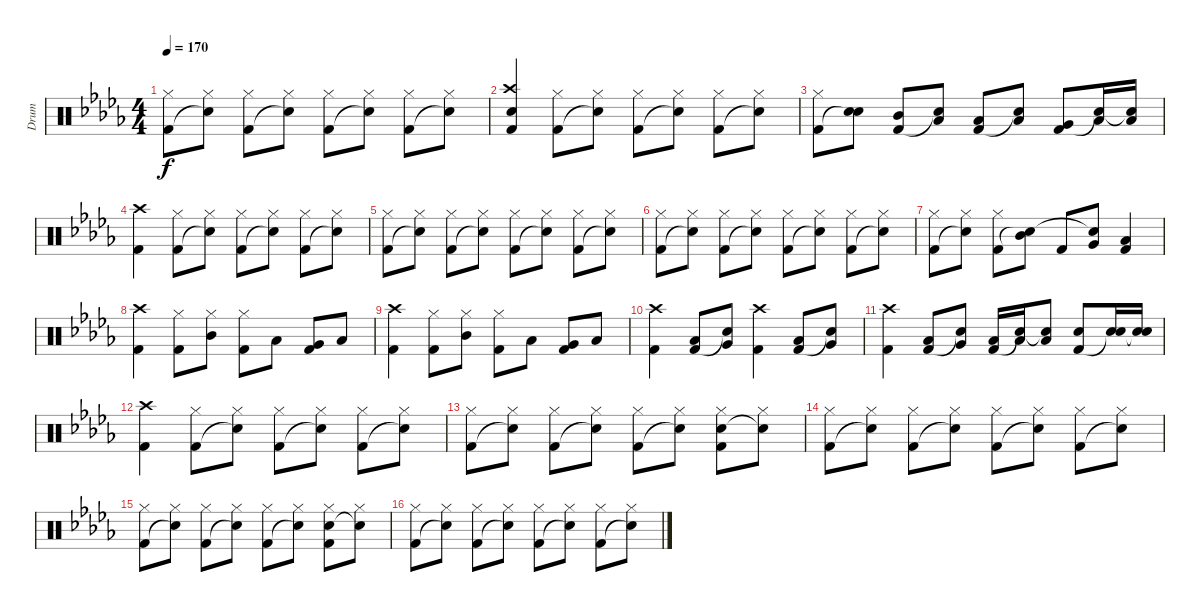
\track ("Drum" "Drum") {instrument percussion}
\staff {score}
\articulation defaults
\ts (4 4)
\tempo 170
\clef neutral
\ks db
("Hi-Hat (closed)" "Kick (hit) 2").8{dy f} ("Hi-Hat (closed)" "Snare (hit)"{t}).8 ("Hi-Hat (closed)" "Kick (hit) 2").8 ("Hi-Hat (closed)" "Snare (hit)"{t}).8 ("Hi-Hat (closed)" "Kick (hit) 2").8 ("Hi-Hat (closed)" "Snare (hit)"{t}).8 ("Hi-Hat (closed)" "Kick (hit) 2").8 ("Hi-Hat (closed)" "Snare (hit)"{t}).8 |
("Crash high (hit)" "Electric Snare (hit)" "Kick (hit) 2").4 ("Hi-Hat (closed)" "Kick (hit) 2").8 ("Hi-Hat (closed)" "Snare (hit)"{t}).8 ("Hi-Hat (closed)" "Kick (hit) 2").8 ("Hi-Hat (closed)" "Snare (hit)"{t}).8 ("Hi-Hat (closed)" "Kick (hit) 2").8 ("Hi-Hat (closed)" "Snare (hit)"{t}).8 |
("Hi-Hat (closed)" "Kick (hit) 2").8 ("Electric Snare (hit)" "Snare (hit)"{t}).8 ("Mid Tom (hit)" "Kick (hit) 2").8 ("Low Tom (hit)" "Snare (hit)"{t}).8 ("Low Tom (hit)" "Kick (hit) 2").8 ("Low Tom (hit)" "Snare (hit)"{t}).8 ("Very Low Tom (hit)" "Kick (hit) 2").8 ("Low Floor Tom (hit)" "Snare (hit)"{t}).16 ("Low Floor Tom (hit)" "Snare (hit)"{t}).16 |
("Crash high (hit)" "Kick (hit) 2").4 ("Hi-Hat (closed)" "Kick (hit) 2").8 ("Hi-Hat (closed)" "Snare (hit)"{t}).8 ("Hi-Hat (closed)" "Kick (hit) 2").8 ("Hi-Hat (closed)" "Snare (hit)"{t}).8 ("Hi-Hat (closed)" "Kick (hit) 2").8 ("Hi-Hat (closed)" "Snare (hit)"{t}).8 |
("Hi-Hat (closed)" "Kick (hit) 2").8 ("Hi-Hat (closed)" "Snare (hit)"{t}).8 ("Hi-Hat (closed)" "Kick (hit) 2").8 ("Hi-Hat (closed)" "Snare (hit)"{t}).8 ("Hi-Hat (closed)" "Kick (hit) 2").8 ("Hi-Hat (closed)" "Snare (hit)"{t}).8 ("Hi-Hat (closed)" "Kick (hit) 2").8 ("Hi-Hat (closed)" "Snare (hit)"{t}).8 |
("Hi-Hat (closed)" "Kick (hit) 2").8 ("Hi-Hat (closed)" "Snare (hit)"{t}).8 ("Hi-Hat (closed)" "Kick (hit) 2").8 ("Hi-Hat (closed)" "Snare (hit)"{t}).8 ("Hi-Hat (closed)" "Kick (hit) 2").8 ("Hi-Hat (closed)" "Snare (hit)"{t}).8 ("Hi-Hat (closed)" "Kick (hit) 2").8 ("Hi-Hat (closed)" "Snare (hit)"{t}).8 |
("Hi-Hat (closed)" "Kick (hit) 2").8 ("Hi-Hat (closed)" "Snare (hit)"{t}).8 ("Hi-Hat (closed)" "Kick (hit) 2").8 ("Mid Tom (hit)" "Snare (hit)"{t}).8 "Kick (hit) 2".8 ("Very Low Tom (hit)" "Snare (hit)"{t}).8 ("Low Floor Tom (hit)" "Kick (hit) 2").4 |
("Crash high (hit)" "Kick (hit) 2").4 ("Hi-Hat (closed)" "Kick (hit) 2").8 ("Hi-Hat (closed)" "Mid Tom (hit)").8 ("Hi-Hat (closed)" "Kick (hit) 2").8 "Low Tom (hit)".8 ("Very Low Tom (hit)" "Kick (hit) 2").8 "Low Floor Tom (hit)".8 |
("Crash high (hit)" "Kick (hit) 2").4 ("Hi-Hat (closed)" "Kick (hit) 2").8 ("Hi-Hat (closed)" "Mid Tom (hit)").8 ("Hi-Hat (closed)" "Kick (hit) 2").8 "Low Tom (hit)".8 ("Very Low Tom (hit)" "Kick (hit) 2").8 "Low Floor Tom (hit)".8 |
("Crash high (hit)" "Kick (hit) 2").4 ("Low Tom (hit)" "Kick (hit) 2").8 ("Very Low Tom (hit)" "Snare (hit)"{t}).8 ("Crash high (hit)" "Kick (hit) 2").4 ("Low Tom (hit)" "Kick (hit) 2").8 ("Very Low Tom (hit)" "Snare (hit)"{t}).8 |
("Crash high (hit)" "Kick (hit) 2").4 ("Low Tom (hit)" "Kick (hit) 2").8 ("Very Low Tom (hit)" "Snare (hit)"{t}).8 ("Low Floor Tom (hit)" "Kick (hit) 2").16 ("Low Floor Tom (hit)" "Snare (hit)"{t}).16 ("Low Floor Tom (hit)" "Snare (hit)"{t}).8 ("Electric Snare (hit)" "Kick (hit) 2").8 ("Electric Snare (hit)" "Snare (hit)"{t}).16 ("Electric Snare (hit)" "Snare (hit)"{t}).16 |
("Crash high (hit)" "Kick (hit) 2").4 ("Hi-Hat (closed)" "Kick (hit) 2").8 ("Hi-Hat (closed)" "Snare (hit)"{t}).8 ("Hi-Hat (closed)" "Kick (hit) 2").8 ("Hi-Hat (closed)" "Snare (hit)"{t}).8 ("Hi-Hat (closed)" "Kick (hit) 2").8 ("Hi-Hat (closed)" "Snare (hit)"{t}).8 |
("Hi-Hat (closed)" "Kick (hit) 2").8 ("Hi-Hat (closed)" "Snare (hit)"{t}).8 ("Hi-Hat (closed)" "Kick (hit) 2").8 ("Hi-Hat (closed)" "Snare (hit)"{t}).8 ("Hi-Hat (closed)" "Kick (hit) 2").8 ("Hi-Hat (closed)" "Snare (hit)"{t}).8 ("Hi-Hat (closed)" "Electric Snare (hit)" "Kick (hit) 2").8 ("Hi-Hat (closed)" "Snare (hit)"{t}).8 |
("Hi-Hat (closed)" "Kick (hit) 2").8 ("Hi-Hat (closed)" "Snare (hit)"{t}).8 ("Hi-Hat (closed)" "Kick (hit) 2").8 ("Hi-Hat (closed)" "Snare (hit)"{t}).8 ("Hi-Hat (closed)" "Kick (hit) 2").8 ("Hi-Hat (closed)" "Snare (hit)"{t}).8 ("Hi-Hat (closed)" "Kick (hit) 2").8 ("Hi-Hat (closed)" "Snare (hit)"{t}).8 |
("Hi-Hat (closed)" "Kick (hit) 2").8 ("Hi-Hat (closed)" "Snare (hit)"{t}).8 ("Hi-Hat (closed)" "Kick (hit) 2").8 ("Hi-Hat (closed)" "Snare (hit)"{t}).8 ("Hi-Hat (closed)" "Kick (hit) 2").8 ("Hi-Hat (closed)" "Snare (hit)"{t}).8 ("Hi-Hat (closed)" "Electric Snare (hit)" "Kick (hit) 2").8 ("Hi-Hat (closed)" "Snare (hit)"{t}).8 |
("Hi-Hat (closed)" "Kick (hit) 2").8 ("Hi-Hat (closed)" "Snare (hit)"{t}).8 ("Hi-Hat (closed)" "Kick (hit) 2").8 ("Hi-Hat (closed)" "Snare (hit)"{t}).8 ("Hi-Hat (closed)" "Kick (hit) 2").8 ("Hi-Hat (closed)" "Snare (hit)"{t}).8 ("Hi-Hat (closed)" "Kick (hit) 2").8 ("Hi-Hat (closed)" "Snare (hit)"{t}).8
